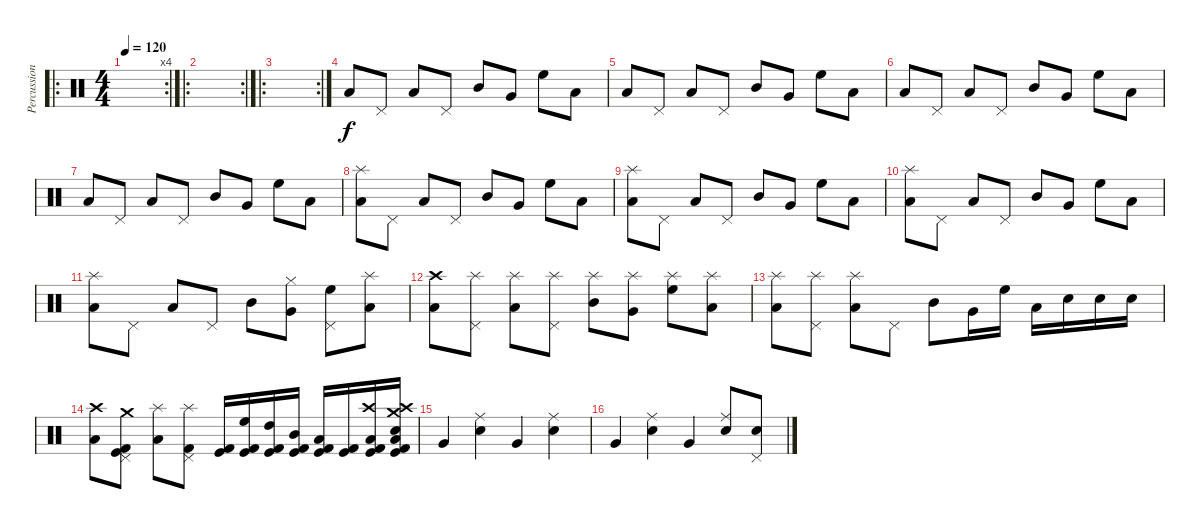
\track ("Percussion" "Percussion") {instrument percussion}
\staff {score}
\articulation defaults
\ro
\rc 4
\ts (4 4)
\tempo 120
\clef neutral
\ks c
|
\ro
\rc 2
|
\ro
\rc 2
|
"Low Floor Tom (hit)".8 "Pedal Hi-Hat (hit)".8 "Low Floor Tom (hit)".8 "Pedal Hi-Hat (hit)".8 "Mid Tom (hit)".8 "Very Low Tom (hit)".8 "High Floor Tom (hit)".8 "Low Floor Tom (hit)".8 |
"Low Floor Tom (hit)".8 "Pedal Hi-Hat (hit)".8 "Low Floor Tom (hit)".8 "Pedal Hi-Hat (hit)".8 "Mid Tom (hit)".8 "Very Low Tom (hit)".8 "High Floor Tom (hit)".8 "Low Floor Tom (hit)".8 |
"Low Floor Tom (hit)".8 "Pedal Hi-Hat (hit)".8 "Low Floor Tom (hit)".8 "Pedal Hi-Hat (hit)".8 "Mid Tom (hit)".8 "Very Low Tom (hit)".8 "High Floor Tom (hit)".8 "Low Floor Tom (hit)".8 |
"Low Floor Tom (hit)".8 "Pedal Hi-Hat (hit)".8 "Low Floor Tom (hit)".8 "Pedal Hi-Hat (hit)".8 "Mid Tom (hit)".8 "Very Low Tom (hit)".8 "High Floor Tom (hit)".8 "Low Floor Tom (hit)".8 |
("Splash (hit)" "Low Floor Tom (hit)").8 "Pedal Hi-Hat (hit)".8 "Low Floor Tom (hit)".8 "Pedal Hi-Hat (hit)".8 "Mid Tom (hit)".8 "Very Low Tom (hit)".8 "High Floor Tom (hit)".8 "Low Floor Tom (hit)".8 |
("Splash (hit)" "Low Floor Tom (hit)").8 "Pedal Hi-Hat (hit)".8 "Low Floor Tom (hit)".8 "Pedal Hi-Hat (hit)".8 "Mid Tom (hit)".8 "Very Low Tom (hit)".8 "High Floor Tom (hit)".8 "Low Floor Tom (hit)".8 |
("Splash (hit)" "Low Floor Tom (hit)").8 "Pedal Hi-Hat (hit)".8 "Low Floor Tom (hit)".8 "Pedal Hi-Hat (hit)".8 "Mid Tom (hit)".8 "Very Low Tom (hit)".8 "High Floor Tom (hit)".8 "Low Floor Tom (hit)".8 |
("Splash (hit)" "Low Floor Tom (hit)").8 "Pedal Hi-Hat (hit)".8 "Low Floor Tom (hit)".8 "Pedal Hi-Hat (hit)".8 "Mid Tom (hit)".8 ("Hi-Hat (closed)" "Very Low Tom (hit)").8 ("Pedal Hi-Hat (hit)" "High Floor Tom (hit)").8 ("Splash (hit)" "Low Floor Tom (hit)").8 |
("Crash high (hit)" "Low Floor Tom (hit)").8 ("Splash (hit)" "Pedal Hi-Hat (hit)").8 ("Splash (hit)" "Low Floor Tom (hit)").8 ("Splash (hit)" "Pedal Hi-Hat (hit)").8 ("Splash (hit)" "Mid Tom (hit)").8 ("Splash (hit)" "Very Low Tom (hit)").8 ("Splash (hit)" "High Floor Tom (hit)").8 ("Splash (hit)" "Low Floor Tom (hit)").8 |
("Splash (hit)" "Low Floor Tom (hit)").8 ("Splash (hit)" "Pedal Hi-Hat (hit)").8 ("Splash (hit)" "Low Floor Tom (hit)").8 "Pedal Hi-Hat (hit)".8 "Mid Tom (hit)".8 "Very Low Tom (hit)".16 "High Floor Tom (hit)".16 "Low Floor Tom (hit)".16 "Electric Snare (hit)".16 "Electric Snare (hit)".16 "Electric Snare (hit)".16 |
("Crash high (hit)" "Low Floor Tom (hit)").8 ("Crash medium (hit)" "Pedal Hi-Hat (hit)" "Kick (hit)" "Kick (hit) 2").8 ("Splash (hit)" "Low Floor Tom (hit)").8 ("Splash (hit)" "Pedal Hi-Hat (hit)" "Kick (hit) 2").8 ("Kick (hit)" "Kick (hit) 2").16 ("High Floor Tom (hit)" "Kick (hit)" "Kick (hit) 2").16 ("High Tom (hit)" "Kick (hit)" "Kick (hit) 2").16 ("Mid Tom (hit)" "Kick (hit)" "Kick (hit) 2").16 ("Low Tom (hit)" "Kick (hit)" "Kick (hit) 2").16 ("Kick (hit)" "Kick (hit) 2").16 ("Crash high (hit)" "Low Floor Tom (hit)" "Kick (hit)" "Kick (hit) 2").16 ("Crash medium (hit)" "Crash high (hit)" "Electric Snare (hit)" "Low Floor Tom (hit)" "Kick (hit)" "Kick (hit) 2").16 |
"Very Low Tom (hit)".4 ("Ride (middle)" "Snare (hit) 2").4 "Very Low Tom (hit)".4 ("Ride (middle)" "Snare (hit) 2").4 |
"Very Low Tom (hit)".4 ("Ride (middle)" "Snare (hit) 2").4 "Very Low Tom (hit)".4 ("Ride (middle)" "Snare (hit) 2").8 ("Pedal Hi-Hat (hit)" "Snare (hit) 2").8
